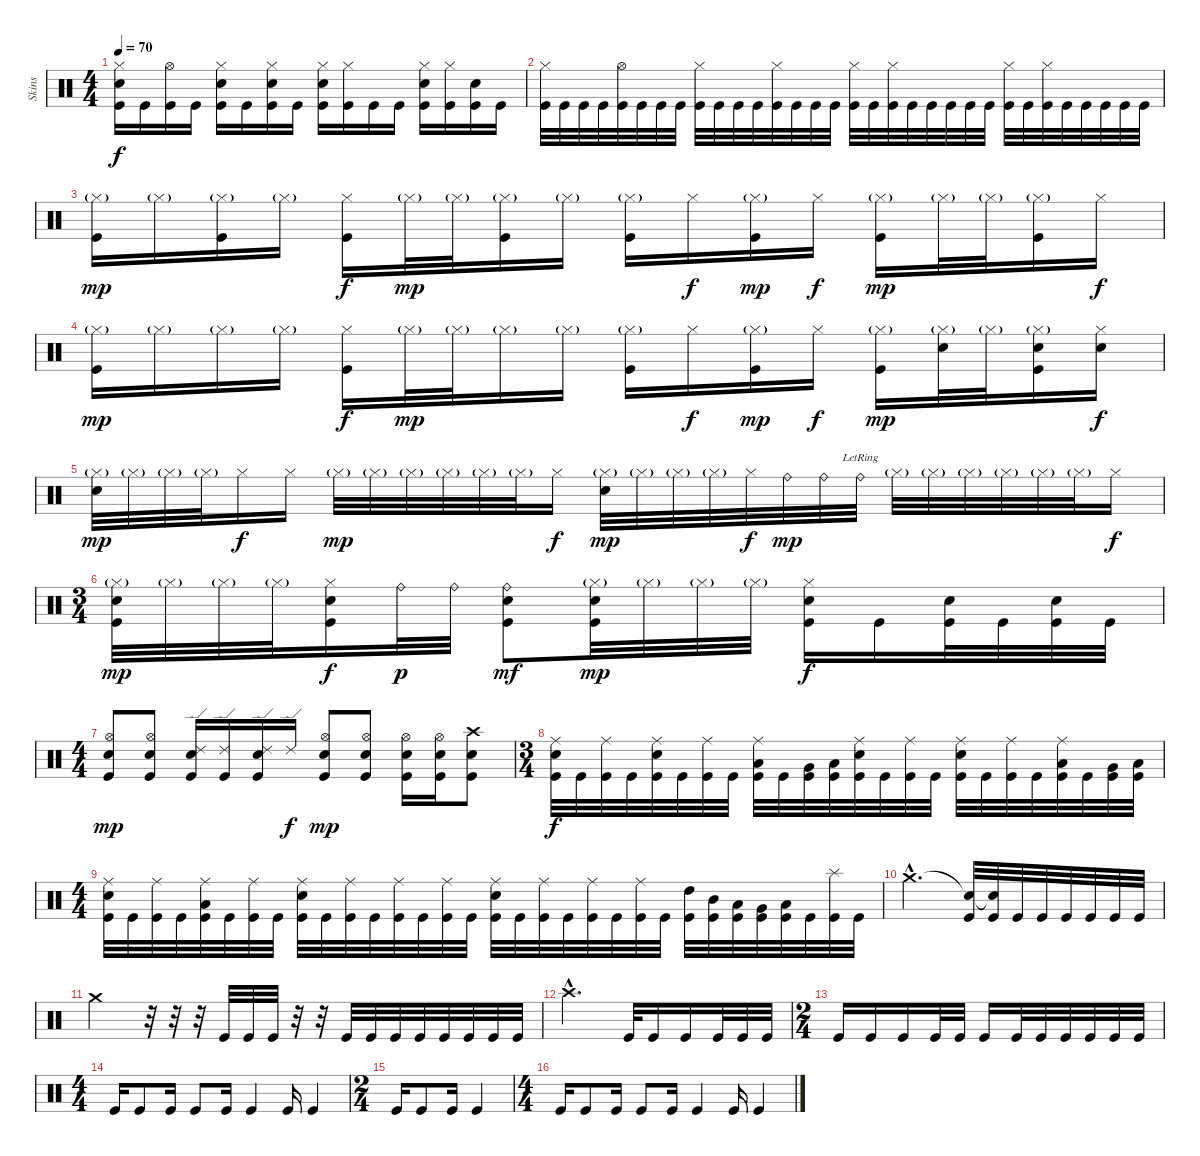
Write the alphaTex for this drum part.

\track ("Skins" "Skins") {instrument percussion}
\staff {score}
\articulation defaults
\ts (4 4)
\tempo 70
\clef neutral
\ks c
("Hi-Hat (closed)" "Electric Snare (hit)" "Kick (hit)").16{dy f} "Kick (hit)".16 ("Hi-Hat (open)" "Kick (hit)").16 "Kick (hit)".16 ("Hi-Hat (closed)" "Electric Snare (hit)" "Kick (hit)").16 "Kick (hit)".16 ("Hi-Hat (closed)" "Electric Snare (hit)" "Kick (hit)").16 "Kick (hit)".16 ("Hi-Hat (closed)" "Electric Snare (hit)" "Kick (hit)").16 ("Hi-Hat (closed)" "Kick (hit)").16 "Kick (hit)".16 "Kick (hit)".16 ("Hi-Hat (closed)" "Electric Snare (hit)" "Kick (hit)").16 ("Hi-Hat (closed)" "Kick (hit)").16 ("Electric Snare (hit)" "Kick (hit)").16 "Kick (hit)".16 |
("Hi-Hat (closed)" "Kick (hit)").32 "Kick (hit)".32 "Kick (hit)".32 "Kick (hit)".32 ("Hi-Hat (open)" "Kick (hit)").32 "Kick (hit)".32 "Kick (hit)".32 "Kick (hit)".32 ("Hi-Hat (closed)" "Kick (hit)").32 "Kick (hit)".32 "Kick (hit)".32 "Kick (hit)".32 ("Hi-Hat (closed)" "Kick (hit)").32 "Kick (hit)".32 "Kick (hit)".32 "Kick (hit)".32 ("Hi-Hat (closed)" "Kick (hit)").32 "Kick (hit)".32 ("Hi-Hat (closed)" "Kick (hit)").32 "Kick (hit)".32 "Kick (hit)".32 "Kick (hit)".32 "Kick (hit)".32 "Kick (hit)".32 ("Hi-Hat (closed)" "Kick (hit)").32 "Kick (hit)".32 ("Hi-Hat (closed)" "Kick (hit)").32 "Kick (hit)".32 "Kick (hit)".32 "Kick (hit)".32 "Kick (hit)".32 "Kick (hit)".32 |
("Hi-Hat (closed)"{g} "Kick (hit)").16{dy mp} "Hi-Hat (closed)"{g}.16 ("Hi-Hat (closed)"{g} "Kick (hit)").16 "Hi-Hat (closed)"{g}.16 ("Hi-Hat (closed)" "Kick (hit)").16{dy f} "Hi-Hat (closed)"{g}.32{dy mp} "Hi-Hat (closed)"{g}.32 ("Hi-Hat (closed)"{g} "Kick (hit)").16 "Hi-Hat (closed)"{g}.16 ("Hi-Hat (closed)"{g} "Kick (hit)").16 "Hi-Hat (closed)".16{dy f} ("Hi-Hat (closed)"{g} "Kick (hit)").16{dy mp} "Hi-Hat (closed)".16{dy f} ("Hi-Hat (closed)"{g} "Kick (hit)").16{dy mp} "Hi-Hat (closed)"{g}.32 "Hi-Hat (closed)"{g}.32 ("Hi-Hat (closed)"{g} "Kick (hit)").16 "Hi-Hat (closed)".16{dy f} |
("Hi-Hat (closed)"{g} "Kick (hit)").16{dy mp} "Hi-Hat (closed)"{g}.16 "Hi-Hat (closed)"{g}.16 "Hi-Hat (closed)"{g}.16 ("Hi-Hat (closed)" "Kick (hit)").16{dy f} "Hi-Hat (closed)"{g}.32{dy mp} "Hi-Hat (closed)"{g}.32 "Hi-Hat (closed)"{g}.16 "Hi-Hat (closed)"{g}.16 ("Hi-Hat (closed)"{g} "Kick (hit)").16 "Hi-Hat (closed)".16{dy f} ("Hi-Hat (closed)"{g} "Kick (hit)").16{dy mp} "Hi-Hat (closed)".16{dy f} ("Hi-Hat (closed)"{g} "Kick (hit)").16{dy mp} ("Hi-Hat (closed)"{g} "Electric Snare (hit)").32 "Hi-Hat (closed)"{g}.32 ("Hi-Hat (closed)"{g} "Electric Snare (hit)" "Kick (hit)").16 ("Hi-Hat (closed)" "Snare (hit) 2").16{dy f} |
("Hi-Hat (closed)"{g} "Snare (hit) 2").32{dy mp} "Hi-Hat (closed)"{g}.32 "Hi-Hat (closed)"{g}.32 "Hi-Hat (closed)"{g}.32 "Hi-Hat (closed)".16{dy f} "Hi-Hat (closed)".16 "Hi-Hat (closed)"{g}.32{dy mp} "Hi-Hat (closed)"{g}.32 "Hi-Hat (closed)"{g}.32 "Hi-Hat (closed)"{g}.32 "Hi-Hat (closed)"{g}.32 "Hi-Hat (closed)"{g}.32 "Hi-Hat (closed)".16{dy f} ("Hi-Hat (closed)"{g} "Snare (hit) 2").32{dy mp} "Hi-Hat (closed)"{g}.32 "Hi-Hat (closed)"{g}.32 "Hi-Hat (closed)"{g}.32 "Hi-Hat (closed)".32{dy f} "Ride (bell)".32{dy mp} "Ride (bell)".32 "Ride (bell)"{lr}.32 "Hi-Hat (closed)"{g}.32 "Hi-Hat (closed)"{g}.32 "Hi-Hat (closed)"{g}.32 "Hi-Hat (closed)"{g}.32 "Hi-Hat (closed)"{g}.32 "Hi-Hat (closed)"{g}.32 "Hi-Hat (closed)".16{dy f} |
\ts (3 4)
("Hi-Hat (closed)"{g} "Snare (hit) 2" "Kick (hit)").32{dy mp} "Hi-Hat (closed)"{g}.32 "Hi-Hat (closed)"{g}.32 "Hi-Hat (closed)"{g}.32 ("Hi-Hat (closed)" "Snare (hit) 2" "Kick (hit)").16{dy f} "Ride (bell)".32{dy p} "Ride (bell)".32 ("Ride (bell)" "Snare (hit) 2" "Kick (hit)").8{dy mf} ("Hi-Hat (closed)"{g} "Snare (hit) 2" "Kick (hit)").32{dy mp} "Hi-Hat (closed)"{g}.32 "Hi-Hat (closed)"{g}.32 "Hi-Hat (closed)"{g}.32 ("Hi-Hat (closed)" "Snare (hit) 2" "Kick (hit)").16{dy f} "Kick (hit)".16 ("Snare (hit) 2" "Kick (hit)").32 "Kick (hit)".32 ("Snare (hit) 2" "Kick (hit)").32 "Kick (hit)".32 |
\ts (4 4)
("Hi-Hat (open)" "Snare (hit) 2" "Kick (hit)").8{dy mp} ("Hi-Hat (open)" "Snare (hit) 2" "Kick (hit)").8 ("Ride (edge) 2" "Electric Snare (hit)" "Kick (hit)").16 ("Ride (edge) 2" "Kick (hit)").16 ("Ride (edge) 2" "Electric Snare (hit)" "Kick (hit)").16 "Ride (edge) 2".16{dy f} ("Hi-Hat (open)" "Snare (hit) 2" "Kick (hit)").8{dy mp} ("Hi-Hat (open)" "Snare (hit) 2" "Kick (hit)").8 ("Hi-Hat (open)" "Snare (hit) 2" "Kick (hit)").16 ("Hi-Hat (open)" "Snare (hit) 2" "Kick (hit)").16 ("Crash high (hit)" "Electric Snare (hit)" "Kick (hit)").8 |
\ts (3 4)
("Ride (middle)" "Snare (hit) 2" "Kick (hit)").32{dy f} "Kick (hit)".32 ("Ride (middle)" "Kick (hit)").32 "Kick (hit)".32 ("Ride (middle)" "Snare (hit) 2" "Kick (hit)").32 "Kick (hit)".32 ("Ride (middle)" "Kick (hit)").32 "Kick (hit)".32 ("Ride (middle)" "Low Tom (hit)" "Kick (hit)").32 "Kick (hit)".32 ("Very Low Tom (hit)" "Kick (hit)").32 ("Low Floor Tom (hit)" "Kick (hit)").32 ("Ride (middle)" "Snare (hit) 2" "Kick (hit)").32 "Kick (hit)".32 ("Ride (middle)" "Kick (hit)").32 "Kick (hit)".32 ("Ride (middle)" "Snare (hit) 2" "Kick (hit)").32 "Kick (hit)".32 ("Ride (middle)" "Kick (hit)").32 "Kick (hit)".32 ("Ride (middle)" "Low Tom (hit)" "Kick (hit)").32 "Kick (hit)".32 ("Very Low Tom (hit)" "Kick (hit)").32 ("Low Floor Tom (hit)" "Kick (hit)").32 |
\ts (4 4)
("Ride (middle)" "Electric Snare (hit)" "Kick (hit)").32 "Kick (hit)".32 ("Ride (middle)" "Kick (hit)").32 "Kick (hit)".32 ("Ride (middle)" "Low Floor Tom (hit)" "Kick (hit)").32 "Kick (hit)".32 ("Ride (middle)" "Kick (hit)").32 "Kick (hit)".32 ("Ride (middle)" "Electric Snare (hit)" "Kick (hit)").32 "Kick (hit)".32 ("Ride (middle)" "Kick (hit)").32 "Kick (hit)".32 ("Ride (middle)" "Kick (hit)").32 "Kick (hit)".32 ("Ride (middle)" "Kick (hit)").32 "Kick (hit)".32 ("Ride (middle)" "Electric Snare (hit)" "Kick (hit)").32 "Kick (hit)".32 ("Ride (middle)" "Kick (hit)").32 "Kick (hit)".32 ("Ride (middle)" "Kick (hit)").32 "Kick (hit)".32 ("Ride (middle)" "Kick (hit)").32 "Kick (hit)".32 ("High Tom (hit)" "Kick (hit)").32 ("Mid Tom (hit)" "Kick (hit)").32 ("Low Tom (hit)" "Kick (hit)").32 ("Very Low Tom (hit)" "Kick (hit)").32 ("Low Floor Tom (hit)" "Kick (hit)").32 "Kick (hit)".32 ("Splash (hit)" "Kick (hit)").32 "Kick (hit)".32 |
"Crash medium (hit)"{hac}.2{d} ("Snare (hit)"{t} "Kick (hit)").32 ("Snare (hit)"{t} "Kick (hit)").32 "Kick (hit)".32 "Kick (hit)".32 "Kick (hit)".32 "Kick (hit)".32 "Kick (hit)".32 "Kick (hit)".32 |
"Crash medium (hit)".2 r.32 r.32 r.32 "Kick (hit)".32 "Kick (hit)".32 "Kick (hit)".32 r.32 r.32 "Kick (hit)".32 "Kick (hit)".32 "Kick (hit)".32 "Kick (hit)".32 "Kick (hit)".32 "Kick (hit)".32 "Kick (hit)".32 "Kick (hit)".32 |
"Crash high (hit)"{hac}.2{d} "Kick (hit)".32 "Kick (hit)".16 "Kick (hit)".16 "Kick (hit)".32 "Kick (hit)".32 "Kick (hit)".32 |
\ts (2 4)
"Kick (hit)".16 "Kick (hit)".16 "Kick (hit)".16 "Kick (hit)".32 "Kick (hit)".32 "Kick (hit)".16 "Kick (hit)".32 "Kick (hit)".32 "Kick (hit)".32 "Kick (hit)".32 "Kick (hit)".32 "Kick (hit)".32 |
\ts (4 4)
"Kick (hit)".16 "Kick (hit)".8 "Kick (hit)".16 "Kick (hit)".8 "Kick (hit)".16 "Kick (hit)".4 "Kick (hit)".16 "Kick (hit)".4 |
\ts (2 4)
"Kick (hit)".16 "Kick (hit)".8 "Kick (hit)".16 "Kick (hit)".4 |
\ts (4 4)
"Kick (hit)".16 "Kick (hit)".8 "Kick (hit)".16 "Kick (hit)".8 "Kick (hit)".16 "Kick (hit)".4 "Kick (hit)".16 "Kick (hit)".4
